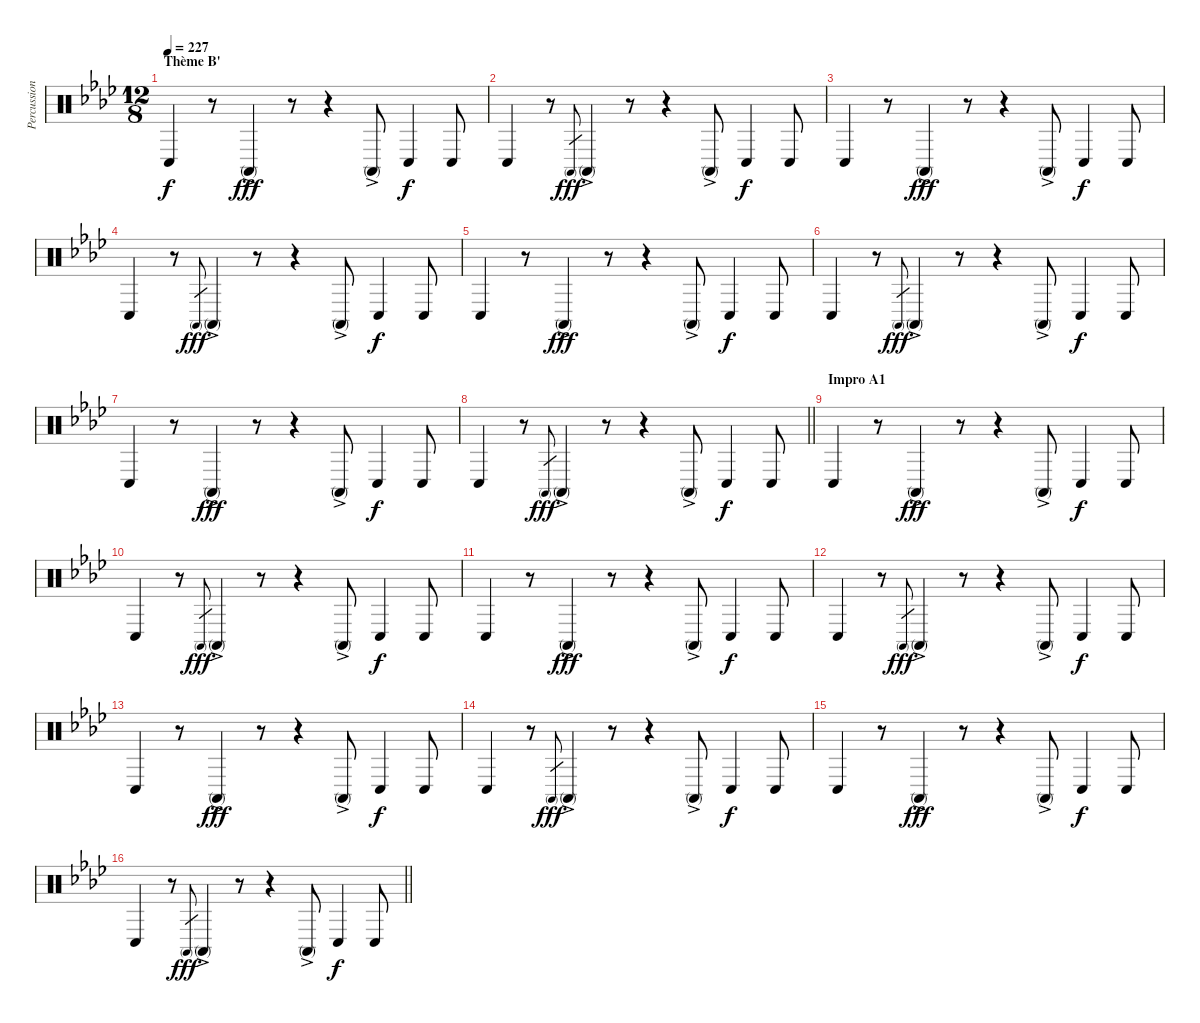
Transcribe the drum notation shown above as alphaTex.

\track ("Percussions" "Percussion") {instrument percussion}
\staff {score}
\articulation defaults
\ts (12 8)
\section ("" "Thème B'")
\tempo 227
\clef neutral
\ks fminor "Conga low (hit)".4{dy f volume 12 balance 8}
r.8 "Conga high (mute)"{ac}.4{dy fff} r.8 r.4 "Conga high (mute)"{ac}.8 "Conga low (hit)".4{dy f} "Conga low (hit)".8 |
"Conga low (hit)".4 r.8 "Conga high (mute)".8{gr dy fff} "Conga high (mute)"{ac}.4 r.8 r.4 "Conga high (mute)"{ac}.8 "Conga low (hit)".4{dy f} "Conga low (hit)".8 |
"Conga low (hit)".4 r.8 "Conga high (mute)"{ac}.4{dy fff} r.8 r.4 "Conga high (mute)"{ac}.8 "Conga low (hit)".4{dy f} "Conga low (hit)".8 |
"Conga low (hit)".4 r.8 "Conga high (mute)".8{gr dy fff} "Conga high (mute)"{ac}.4 r.8 r.4 "Conga high (mute)"{ac}.8 "Conga low (hit)".4{dy f} "Conga low (hit)".8 |
"Conga low (hit)".4 r.8 "Conga high (mute)"{ac}.4{dy fff} r.8 r.4 "Conga high (mute)"{ac}.8 "Conga low (hit)".4{dy f} "Conga low (hit)".8 |
"Conga low (hit)".4 r.8 "Conga high (mute)".8{gr dy fff} "Conga high (mute)"{ac}.4 r.8 r.4 "Conga high (mute)"{ac}.8 "Conga low (hit)".4{dy f} "Conga low (hit)".8 |
"Conga low (hit)".4 r.8 "Conga high (mute)"{ac}.4{dy fff} r.8 r.4 "Conga high (mute)"{ac}.8 "Conga low (hit)".4{dy f} "Conga low (hit)".8 |
\barLineRight lightlight "Conga low (hit)".4
r.8 "Conga high (mute)".8{gr dy fff} "Conga high (mute)"{ac}.4 r.8 r.4 "Conga high (mute)"{ac}.8 "Conga low (hit)".4{dy f} "Conga low (hit)".8 |
\section ("" "Impro A1")
"Conga low (hit)".4{volume 11 balance 8} r.8 "Conga high (mute)"{ac}.4{dy fff} r.8 r.4 "Conga high (mute)"{ac}.8 "Conga low (hit)".4{dy f} "Conga low (hit)".8 |
"Conga low (hit)".4 r.8 "Conga high (mute)".8{gr dy fff} "Conga high (mute)"{ac}.4 r.8 r.4 "Conga high (mute)"{ac}.8 "Conga low (hit)".4{dy f} "Conga low (hit)".8 |
"Conga low (hit)".4 r.8 "Conga high (mute)"{ac}.4{dy fff} r.8 r.4 "Conga high (mute)"{ac}.8 "Conga low (hit)".4{dy f} "Conga low (hit)".8 |
"Conga low (hit)".4 r.8 "Conga high (mute)".8{gr dy fff} "Conga high (mute)"{ac}.4 r.8 r.4 "Conga high (mute)"{ac}.8 "Conga low (hit)".4{dy f} "Conga low (hit)".8 |
"Conga low (hit)".4 r.8 "Conga high (mute)"{ac}.4{dy fff} r.8 r.4 "Conga high (mute)"{ac}.8 "Conga low (hit)".4{dy f} "Conga low (hit)".8 |
"Conga low (hit)".4 r.8 "Conga high (mute)".8{gr dy fff} "Conga high (mute)"{ac}.4 r.8 r.4 "Conga high (mute)"{ac}.8 "Conga low (hit)".4{dy f} "Conga low (hit)".8 |
"Conga low (hit)".4 r.8 "Conga high (mute)"{ac}.4{dy fff} r.8 r.4 "Conga high (mute)"{ac}.8 "Conga low (hit)".4{dy f} "Conga low (hit)".8 |
\barLineRight lightlight "Conga low (hit)".4
r.8 "Conga high (mute)".8{gr dy fff} "Conga high (mute)"{ac}.4 r.8 r.4 "Conga high (mute)"{ac}.8 "Conga low (hit)".4{dy f} "Conga low (hit)".8
